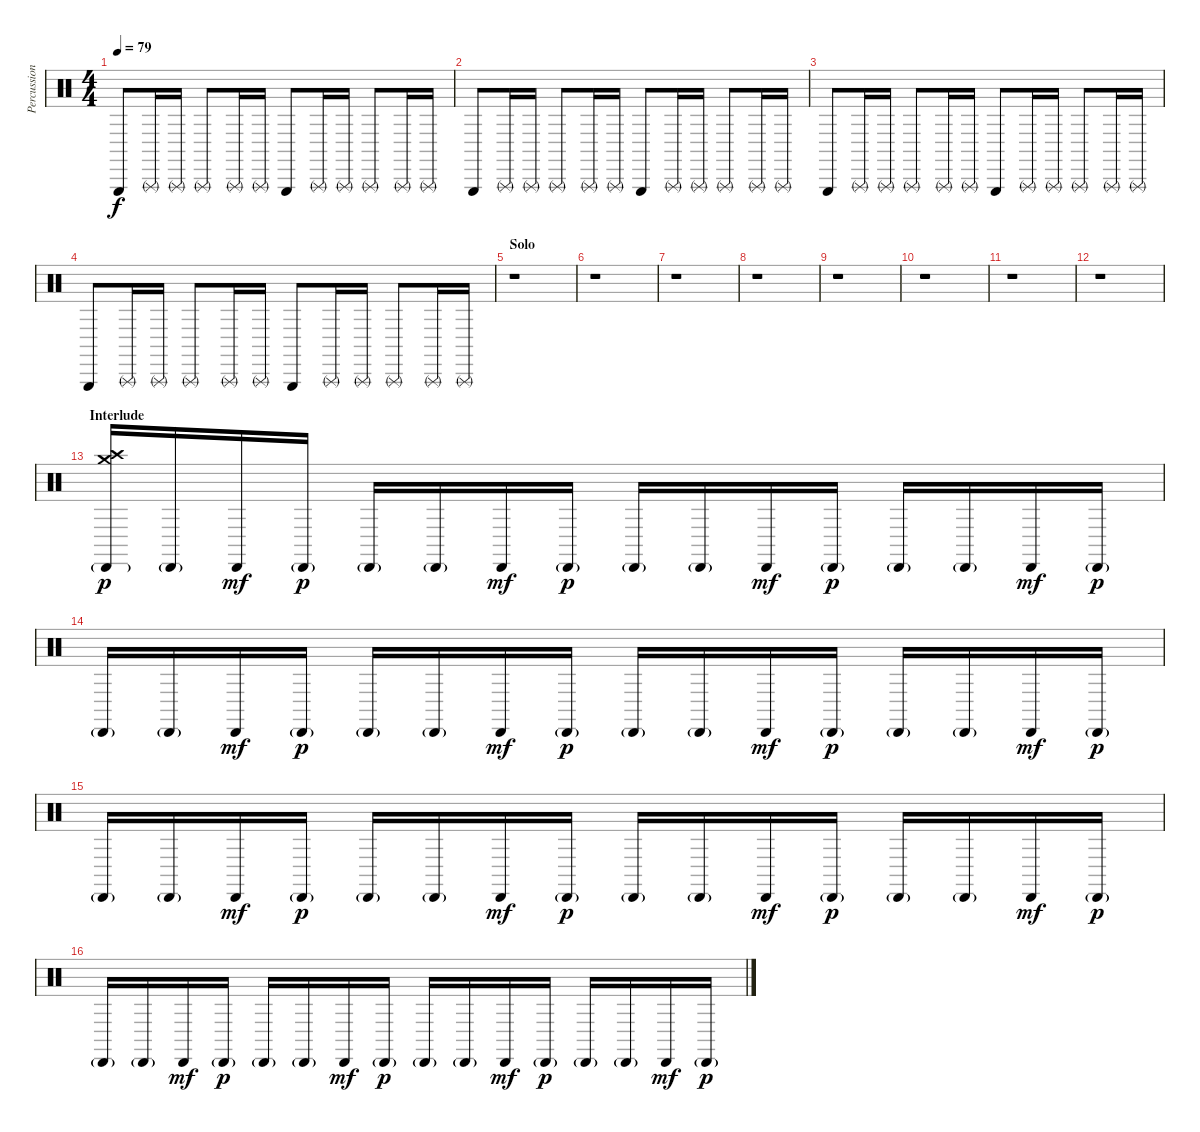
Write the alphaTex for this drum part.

\track ("Percussion Overdubs" "Percussion") {instrument percussion}
\staff {score}
\articulation defaults
\ts (4 4)
\tempo 79
\clef neutral
\ks c "Triangle (hit)".8{dy f} "Triangle (rnute)".16 "Triangle (rnute)".16 "Triangle (rnute)".8 "Triangle (rnute)".16 "Triangle (rnute)".16 "Triangle (hit)".8 "Triangle (rnute)".16 "Triangle (rnute)".16 "Triangle (rnute)".8 "Triangle (rnute)".16 "Triangle (rnute)".16
|
"Triangle (hit)".8 "Triangle (rnute)".16 "Triangle (rnute)".16 "Triangle (rnute)".8 "Triangle (rnute)".16 "Triangle (rnute)".16 "Triangle (hit)".8 "Triangle (rnute)".16 "Triangle (rnute)".16 "Triangle (rnute)".8 "Triangle (rnute)".16 "Triangle (rnute)".16 |
"Triangle (hit)".8 "Triangle (rnute)".16 "Triangle (rnute)".16 "Triangle (rnute)".8 "Triangle (rnute)".16 "Triangle (rnute)".16 "Triangle (hit)".8 "Triangle (rnute)".16 "Triangle (rnute)".16 "Triangle (rnute)".8 "Triangle (rnute)".16 "Triangle (rnute)".16 |
"Triangle (hit)".8 "Triangle (rnute)".16 "Triangle (rnute)".16 "Triangle (rnute)".8 "Triangle (rnute)".16 "Triangle (rnute)".16 "Triangle (hit)".8 "Triangle (rnute)".16 "Triangle (rnute)".16 "Triangle (rnute)".8 "Triangle (rnute)".16 "Triangle (rnute)".16 |
\section ("" "Solo")
r.1 |
r.1 |
r.1 |
r.1 |
r.1 |
r.1 |
r.1 |
r.1 |
\section ("" "Interlude")
("Cabasa (hit)"{g} "Crash medium (hit)" "Crash high (hit)").16{dy p} "Cabasa (hit)"{g}.16 "Cabasa (hit)".16{dy mf} "Cabasa (hit)"{g}.16{dy p} "Cabasa (hit)"{g}.16 "Cabasa (hit)"{g}.16 "Cabasa (hit)".16{dy mf} "Cabasa (hit)"{g}.16{dy p} "Cabasa (hit)"{g}.16 "Cabasa (hit)"{g}.16 "Cabasa (hit)".16{dy mf} "Cabasa (hit)"{g}.16{dy p} "Cabasa (hit)"{g}.16 "Cabasa (hit)"{g}.16 "Cabasa (hit)".16{dy mf} "Cabasa (hit)"{g}.16{dy p} |
"Cabasa (hit)"{g}.16 "Cabasa (hit)"{g}.16 "Cabasa (hit)".16{dy mf} "Cabasa (hit)"{g}.16{dy p} "Cabasa (hit)"{g}.16 "Cabasa (hit)"{g}.16 "Cabasa (hit)".16{dy mf} "Cabasa (hit)"{g}.16{dy p} "Cabasa (hit)"{g}.16 "Cabasa (hit)"{g}.16 "Cabasa (hit)".16{dy mf} "Cabasa (hit)"{g}.16{dy p} "Cabasa (hit)"{g}.16 "Cabasa (hit)"{g}.16 "Cabasa (hit)".16{dy mf} "Cabasa (hit)"{g}.16{dy p} |
"Cabasa (hit)"{g}.16 "Cabasa (hit)"{g}.16 "Cabasa (hit)".16{dy mf} "Cabasa (hit)"{g}.16{dy p} "Cabasa (hit)"{g}.16 "Cabasa (hit)"{g}.16 "Cabasa (hit)".16{dy mf} "Cabasa (hit)"{g}.16{dy p} "Cabasa (hit)"{g}.16 "Cabasa (hit)"{g}.16 "Cabasa (hit)".16{dy mf} "Cabasa (hit)"{g}.16{dy p} "Cabasa (hit)"{g}.16 "Cabasa (hit)"{g}.16 "Cabasa (hit)".16{dy mf} "Cabasa (hit)"{g}.16{dy p} |
"Cabasa (hit)"{g}.16 "Cabasa (hit)"{g}.16 "Cabasa (hit)".16{dy mf} "Cabasa (hit)"{g}.16{dy p} "Cabasa (hit)"{g}.16 "Cabasa (hit)"{g}.16 "Cabasa (hit)".16{dy mf} "Cabasa (hit)"{g}.16{dy p} "Cabasa (hit)"{g}.16 "Cabasa (hit)"{g}.16 "Cabasa (hit)".16{dy mf} "Cabasa (hit)"{g}.16{dy p} "Cabasa (hit)"{g}.16 "Cabasa (hit)"{g}.16 "Cabasa (hit)".16{dy mf} "Cabasa (hit)"{g}.16{dy p}
